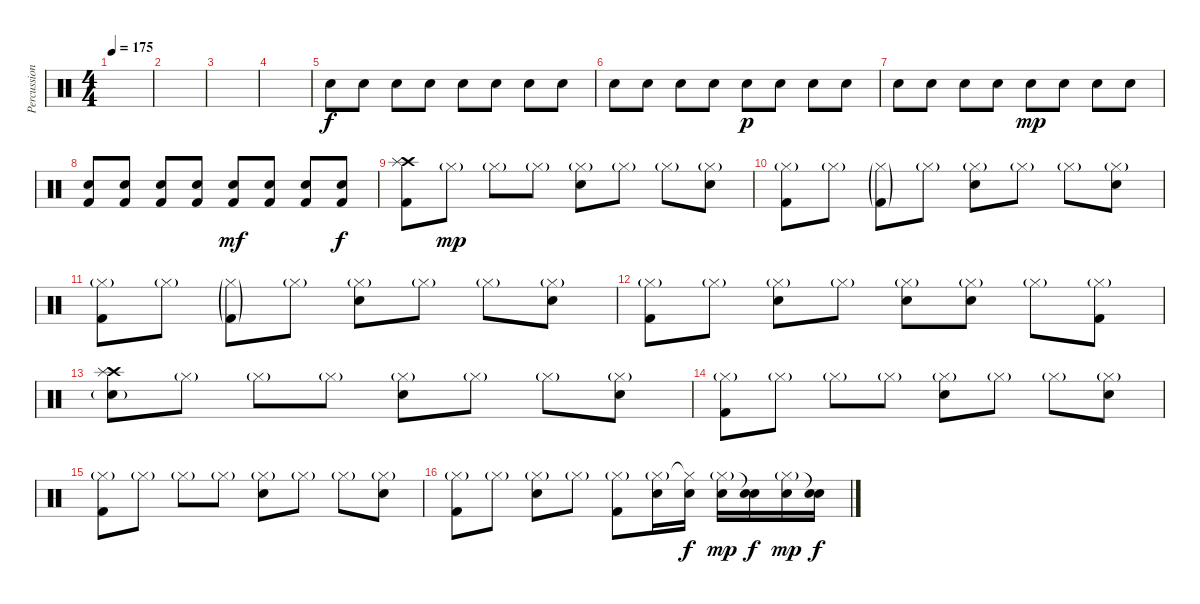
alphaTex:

\track ("Percussion" "Percussion") {instrument percussion}
\staff {score}
\articulation defaults
\ts (4 4)
\tempo 175
\clef neutral
\ks c
|
|
|
|
"Snare (hit) 2".8 "Snare (hit) 2".8 "Snare (hit) 2".8 "Snare (hit) 2".8 "Snare (hit) 2".8 "Snare (hit) 2".8 "Snare (hit) 2".8 "Snare (hit) 2".8 |
"Snare (hit) 2".8 "Snare (hit) 2".8 "Snare (hit) 2".8 "Snare (hit) 2".8 "Snare (hit) 2".8{dy p} "Snare (hit) 2".8 "Snare (hit) 2".8 "Snare (hit) 2".8 |
"Snare (hit) 2".8 "Snare (hit) 2".8 "Snare (hit) 2".8 "Snare (hit) 2".8 "Snare (hit) 2".8{dy mp} "Snare (hit) 2".8 "Snare (hit) 2".8 "Snare (hit) 2".8 |
("Snare (hit) 2" "Kick (hit) 2").8 ("Snare (hit) 2" "Kick (hit) 2").8 ("Snare (hit) 2" "Kick (hit) 2").8 ("Snare (hit) 2" "Kick (hit) 2").8 ("Snare (hit) 2" "Kick (hit) 2").8{dy mf} ("Snare (hit) 2" "Kick (hit) 2").8 ("Snare (hit) 2" "Kick (hit) 2").8 ("Snare (hit) 2" "Kick (hit) 2").8{dy f} |
("Crash high (hit)" "Splash (hit)" "Kick (hit) 2").8 "Hi-Hat (closed)"{g}.8{dy mp} "Hi-Hat (closed)"{g}.8 "Hi-Hat (closed)"{g}.8 ("Hi-Hat (closed)"{g} "Snare (hit) 2").8 "Hi-Hat (closed)"{g}.8 "Hi-Hat (closed)"{g}.8 ("Hi-Hat (closed)"{g} "Snare (hit) 2").8 |
("Hi-Hat (closed)"{g} "Kick (hit) 2").8 "Hi-Hat (closed)"{g}.8 ("Hi-Hat (closed)"{g} "Kick (hit) 2"{g}).8 "Hi-Hat (closed)"{g}.8 ("Hi-Hat (closed)"{g} "Snare (hit) 2").8 "Hi-Hat (closed)"{g}.8 "Hi-Hat (closed)"{g}.8 ("Hi-Hat (closed)"{g} "Snare (hit) 2").8 |
("Hi-Hat (closed)"{g} "Kick (hit) 2").8 "Hi-Hat (closed)"{g}.8 ("Hi-Hat (closed)"{g} "Kick (hit) 2"{g}).8 "Hi-Hat (closed)"{g}.8 ("Hi-Hat (closed)"{g} "Snare (hit) 2").8 "Hi-Hat (closed)"{g}.8 "Hi-Hat (closed)"{g}.8 ("Hi-Hat (closed)"{g} "Snare (hit) 2").8 |
("Hi-Hat (closed)"{g} "Kick (hit) 2").8 "Hi-Hat (closed)"{g}.8 ("Hi-Hat (closed)"{g} "Snare (hit) 2").8 "Hi-Hat (closed)"{g}.8 ("Hi-Hat (closed)"{g} "Snare (hit) 2").8 ("Hi-Hat (closed)"{g} "Snare (hit) 2").8 "Hi-Hat (closed)"{g}.8 ("Hi-Hat (closed)"{g} "Kick (hit) 2").8 |
("Crash high (hit)" "Splash (hit)" "Snare (hit) 2"{g}).8 "Hi-Hat (closed)"{g}.8 "Hi-Hat (closed)"{g}.8 "Hi-Hat (closed)"{g}.8 ("Hi-Hat (closed)"{g} "Snare (hit) 2").8 "Hi-Hat (closed)"{g}.8 "Hi-Hat (closed)"{g}.8 ("Hi-Hat (closed)"{g} "Snare (hit) 2").8 |
("Hi-Hat (closed)"{g} "Kick (hit) 2").8 "Hi-Hat (closed)"{g}.8 "Hi-Hat (closed)"{g}.8 "Hi-Hat (closed)"{g}.8 ("Hi-Hat (closed)"{g} "Snare (hit) 2").8 "Hi-Hat (closed)"{g}.8 "Hi-Hat (closed)"{g}.8 ("Hi-Hat (closed)"{g} "Snare (hit) 2").8 |
("Hi-Hat (closed)"{g} "Kick (hit) 2").8 "Hi-Hat (closed)"{g}.8 "Hi-Hat (closed)"{g}.8 "Hi-Hat (closed)"{g}.8 ("Hi-Hat (closed)"{g} "Snare (hit) 2").8 "Hi-Hat (closed)"{g}.8 "Hi-Hat (closed)"{g}.8 ("Hi-Hat (closed)"{g} "Snare (hit) 2").8 |
("Hi-Hat (closed)"{g} "Kick (hit) 2").8 "Hi-Hat (closed)"{g}.8 ("Hi-Hat (closed)"{g} "Snare (hit) 2").8 "Hi-Hat (closed)"{g}.8 ("Hi-Hat (closed)"{g} "Kick (hit) 2").8 ("Hi-Hat (closed)"{g} "Snare (hit) 2").16 ("Hi-Hat (closed)"{t} "Snare (hit) 2").16{dy f} ("Hi-Hat (closed)"{g} "Snare (hit) 2").16{dy mp} ("Snare (hit)"{t} "Snare (hit) 2").16{dy f} ("Hi-Hat (closed)"{g} "Snare (hit) 2").16{dy mp} ("Snare (hit)"{t} "Snare (hit) 2").16{dy f}
